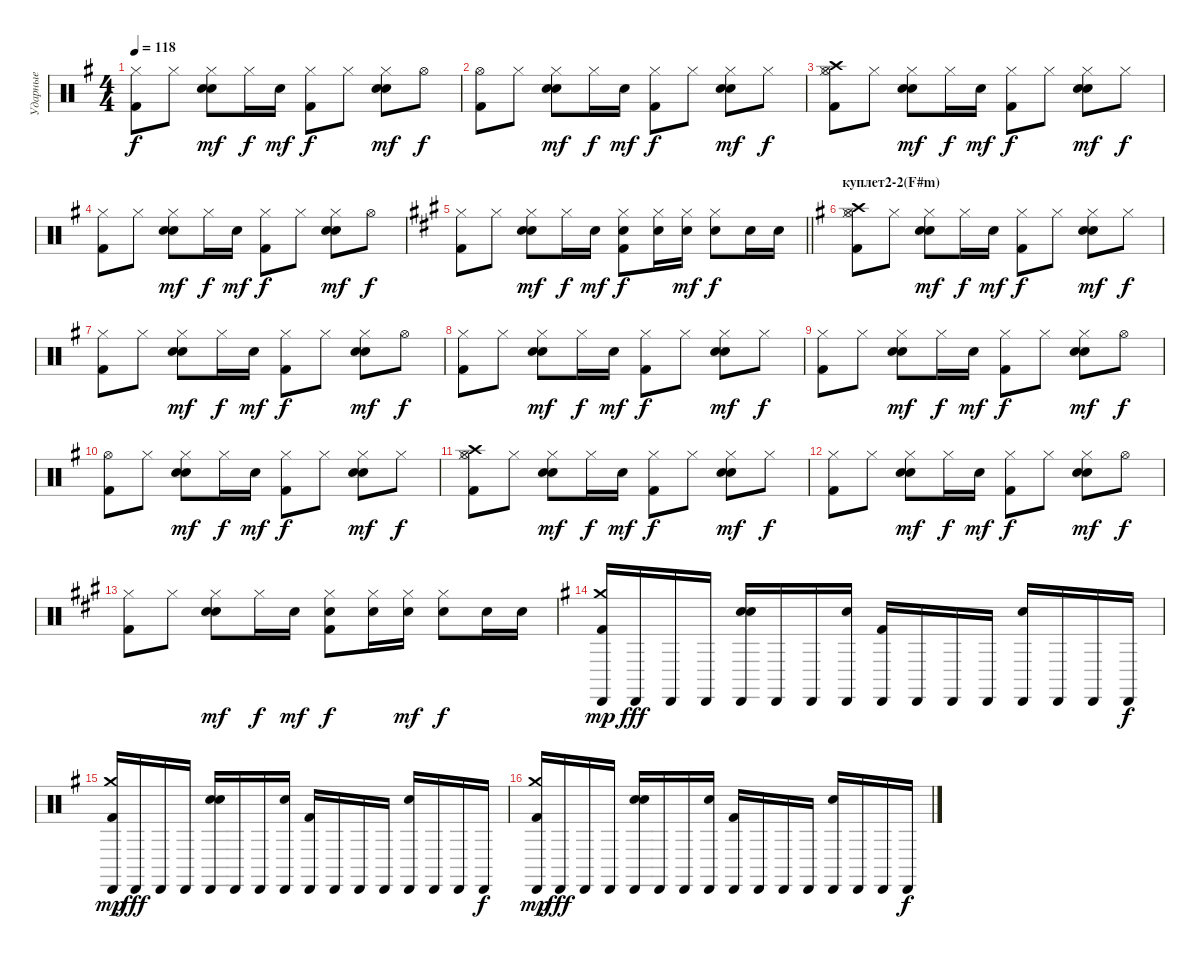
\track ("Ударные" "Ударные") {instrument percussion}
\staff {score}
\articulation defaults
\ts (4 4)
\tempo 118
\clef neutral
\ks eminor
("Hi-Hat (closed)" "Kick (hit) 2").8{dy f} "Hi-Hat (closed)".8 ("Hi-Hat (closed)" "Electric Snare (hit)" "Snare (hit) 2").8{dy mf} "Hi-Hat (closed)".16{dy f} "Snare (hit) 2".16{dy mf} ("Hi-Hat (closed)" "Kick (hit) 2").8{dy f} "Hi-Hat (closed)".8 ("Hi-Hat (closed)" "Electric Snare (hit)" "Snare (hit) 2").8{dy mf} "Hi-Hat (open)".8{dy f} |
("Hi-Hat (open)" "Kick (hit) 2").8 "Hi-Hat (closed)".8 ("Hi-Hat (closed)" "Electric Snare (hit)" "Snare (hit) 2").8{dy mf} "Hi-Hat (closed)".16{dy f} "Snare (hit) 2".16{dy mf} ("Hi-Hat (closed)" "Kick (hit) 2").8{dy f} "Hi-Hat (closed)".8 ("Hi-Hat (closed)" "Electric Snare (hit)" "Snare (hit) 2").8{dy mf} "Hi-Hat (closed)".8{dy f} |
("Hi-Hat (closed)" "Crash high (hit)" "Kick (hit) 2" "Hi-Hat (open)").8 "Hi-Hat (closed)".8 ("Hi-Hat (closed)" "Electric Snare (hit)" "Snare (hit) 2").8{dy mf} "Hi-Hat (closed)".16{dy f} "Snare (hit) 2".16{dy mf} ("Hi-Hat (closed)" "Kick (hit) 2").8{dy f} "Hi-Hat (closed)".8 ("Hi-Hat (closed)" "Electric Snare (hit)" "Snare (hit) 2").8{dy mf} "Hi-Hat (closed)".8{dy f} |
("Hi-Hat (closed)" "Kick (hit) 2").8 "Hi-Hat (closed)".8 ("Hi-Hat (closed)" "Electric Snare (hit)" "Snare (hit) 2").8{dy mf} "Hi-Hat (closed)".16{dy f} "Snare (hit) 2".16{dy mf} ("Hi-Hat (closed)" "Kick (hit) 2").8{dy f} "Hi-Hat (closed)".8 ("Hi-Hat (closed)" "Electric Snare (hit)" "Snare (hit) 2").8{dy mf} "Hi-Hat (open)".8{dy f} |
\barLineRight lightlight
\ks f#minor
("Hi-Hat (closed)" "Kick (hit) 2").8 "Hi-Hat (closed)".8 ("Hi-Hat (closed)" "Electric Snare (hit)" "Snare (hit) 2").8{dy mf} "Hi-Hat (closed)".16{dy f} "Snare (hit) 2".16{dy mf} ("Hi-Hat (closed)" "Kick (hit) 2" "Snare (hit) 2").8{dy f} ("Hi-Hat (closed)" "Snare (hit) 2").16 ("Hi-Hat (closed)" "Snare (hit) 2").16{dy mf} ("Hi-Hat (closed)" "Snare (hit) 2").8{dy f} "Snare (hit) 2".16 "Snare (hit) 2".16 |
\section ("" "куплет2-2(F#m)")
\ks eminor
("Hi-Hat (closed)" "Crash high (hit)" "Kick (hit) 2" "Hi-Hat (open)").8 "Hi-Hat (closed)".8 ("Hi-Hat (closed)" "Electric Snare (hit)" "Snare (hit) 2").8{dy mf} "Hi-Hat (closed)".16{dy f} "Snare (hit) 2".16{dy mf} ("Hi-Hat (closed)" "Kick (hit) 2").8{dy f} "Hi-Hat (closed)".8 ("Hi-Hat (closed)" "Electric Snare (hit)" "Snare (hit) 2").8{dy mf} "Hi-Hat (closed)".8{dy f} |
("Hi-Hat (closed)" "Kick (hit) 2").8 "Hi-Hat (closed)".8 ("Hi-Hat (closed)" "Electric Snare (hit)" "Snare (hit) 2").8{dy mf} "Hi-Hat (closed)".16{dy f} "Snare (hit) 2".16{dy mf} ("Hi-Hat (closed)" "Kick (hit) 2").8{dy f} "Hi-Hat (closed)".8 ("Hi-Hat (closed)" "Electric Snare (hit)" "Snare (hit) 2").8{dy mf} "Hi-Hat (open)".8{dy f} |
("Hi-Hat (closed)" "Kick (hit) 2").8 "Hi-Hat (closed)".8 ("Hi-Hat (closed)" "Electric Snare (hit)" "Snare (hit) 2").8{dy mf} "Hi-Hat (closed)".16{dy f} "Snare (hit) 2".16{dy mf} ("Hi-Hat (closed)" "Kick (hit) 2").8{dy f} "Hi-Hat (closed)".8 ("Hi-Hat (closed)" "Electric Snare (hit)" "Snare (hit) 2").8{dy mf} "Hi-Hat (closed)".8{dy f} |
("Hi-Hat (closed)" "Kick (hit) 2").8 "Hi-Hat (closed)".8 ("Hi-Hat (closed)" "Electric Snare (hit)" "Snare (hit) 2").8{dy mf} "Hi-Hat (closed)".16{dy f} "Snare (hit) 2".16{dy mf} ("Hi-Hat (closed)" "Kick (hit) 2").8{dy f} "Hi-Hat (closed)".8 ("Hi-Hat (closed)" "Electric Snare (hit)" "Snare (hit) 2").8{dy mf} "Hi-Hat (open)".8{dy f} |
("Hi-Hat (open)" "Kick (hit) 2").8 "Hi-Hat (closed)".8 ("Hi-Hat (closed)" "Electric Snare (hit)" "Snare (hit) 2").8{dy mf} "Hi-Hat (closed)".16{dy f} "Snare (hit) 2".16{dy mf} ("Hi-Hat (closed)" "Kick (hit) 2").8{dy f} "Hi-Hat (closed)".8 ("Hi-Hat (closed)" "Electric Snare (hit)" "Snare (hit) 2").8{dy mf} "Hi-Hat (closed)".8{dy f} |
("Hi-Hat (closed)" "Crash high (hit)" "Kick (hit) 2" "Hi-Hat (open)").8 "Hi-Hat (closed)".8 ("Hi-Hat (closed)" "Electric Snare (hit)" "Snare (hit) 2").8{dy mf} "Hi-Hat (closed)".16{dy f} "Snare (hit) 2".16{dy mf} ("Hi-Hat (closed)" "Kick (hit) 2").8{dy f} "Hi-Hat (closed)".8 ("Hi-Hat (closed)" "Electric Snare (hit)" "Snare (hit) 2").8{dy mf} "Hi-Hat (closed)".8{dy f} |
("Hi-Hat (closed)" "Kick (hit) 2").8 "Hi-Hat (closed)".8 ("Hi-Hat (closed)" "Electric Snare (hit)" "Snare (hit) 2").8{dy mf} "Hi-Hat (closed)".16{dy f} "Snare (hit) 2".16{dy mf} ("Hi-Hat (closed)" "Kick (hit) 2").8{dy f} "Hi-Hat (closed)".8 ("Hi-Hat (closed)" "Electric Snare (hit)" "Snare (hit) 2").8{dy mf} "Hi-Hat (open)".8{dy f} |
\ks f#minor
("Hi-Hat (closed)" "Kick (hit) 2").8 "Hi-Hat (closed)".8 ("Hi-Hat (closed)" "Electric Snare (hit)" "Snare (hit) 2").8{dy mf} "Hi-Hat (closed)".16{dy f} "Snare (hit) 2".16{dy mf} ("Hi-Hat (closed)" "Kick (hit) 2" "Snare (hit) 2").8{dy f} ("Hi-Hat (closed)" "Snare (hit) 2").16 ("Hi-Hat (closed)" "Snare (hit) 2").16{dy mf} ("Hi-Hat (closed)" "Snare (hit) 2").8{dy f} "Snare (hit) 2".16 "Snare (hit) 2".16 |
\ks eminor
("Cabasa (hit)" "Crash medium (hit)" "Kick (hit) 2").16{dy mp} "Cabasa (hit)".16{dy fff} "Cabasa (hit)".16 "Cabasa (hit)".16 ("Cabasa (hit)" "Electric Snare (hit)" "Snare (hit) 2").16 "Cabasa (hit)".16 "Cabasa (hit)".16 ("Cabasa (hit)" "Snare (hit) 2").16 ("Cabasa (hit)" "Kick (hit) 2").16 "Cabasa (hit)".16 "Cabasa (hit)".16 "Cabasa (hit)".16 ("Cabasa (hit)" "Snare (hit) 2").16 "Cabasa (hit)".16 "Cabasa (hit)".16 "Cabasa (hit)".16{dy f} |
("Cabasa (hit)" "Crash medium (hit)" "Kick (hit) 2").16{dy mp} "Cabasa (hit)".16{dy fff} "Cabasa (hit)".16 "Cabasa (hit)".16 ("Cabasa (hit)" "Electric Snare (hit)" "Snare (hit) 2").16 "Cabasa (hit)".16 "Cabasa (hit)".16 ("Cabasa (hit)" "Snare (hit) 2").16 ("Cabasa (hit)" "Kick (hit) 2").16 "Cabasa (hit)".16 "Cabasa (hit)".16 "Cabasa (hit)".16 ("Cabasa (hit)" "Snare (hit) 2").16 "Cabasa (hit)".16 "Cabasa (hit)".16 "Cabasa (hit)".16{dy f} |
("Cabasa (hit)" "Crash medium (hit)" "Kick (hit) 2").16{dy mp} "Cabasa (hit)".16{dy fff} "Cabasa (hit)".16 "Cabasa (hit)".16 ("Cabasa (hit)" "Electric Snare (hit)" "Snare (hit) 2").16 "Cabasa (hit)".16 "Cabasa (hit)".16 ("Cabasa (hit)" "Snare (hit) 2").16 ("Cabasa (hit)" "Kick (hit) 2").16 "Cabasa (hit)".16 "Cabasa (hit)".16 "Cabasa (hit)".16 ("Cabasa (hit)" "Snare (hit) 2").16 "Cabasa (hit)".16 "Cabasa (hit)".16 "Cabasa (hit)".16{dy f}
